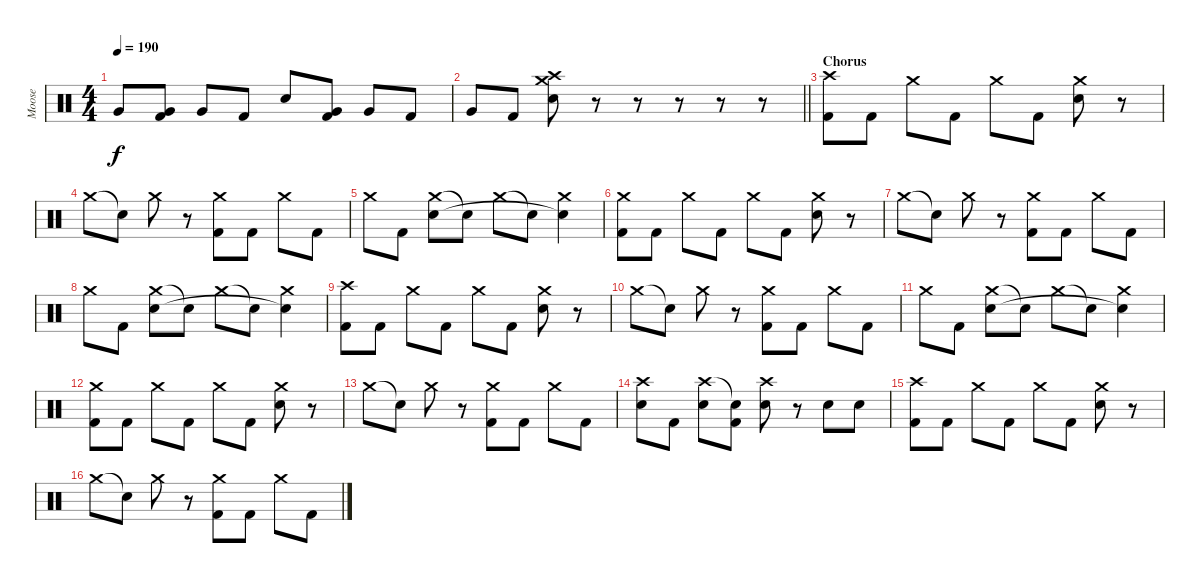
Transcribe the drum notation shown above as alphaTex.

\track ("Moose" "Moose") {instrument percussion}
\staff {score}
\articulation defaults
\ts (4 4)
\tempo 190
\clef neutral
\ks c "Very Low Tom (hit)".8{dy f}
("Very Low Tom (hit)" "Kick (hit) 2").8 "Very Low Tom (hit)".8 "Kick (hit) 2".8 "Snare (hit) 2".8 ("Very Low Tom (hit)" "Kick (hit) 2").8 "Very Low Tom (hit)".8 "Kick (hit) 2".8 |
\barLineRight lightlight "Very Low Tom (hit)".8 "Kick (hit) 2".8
("Crash high (hit)" "Crash medium (hit)" "Snare (hit) 2").8 r.8 r.8 r.8 r.8 r.8 |
\section ("" "Chorus")
("Crash high (hit)" "Kick (hit) 2").8 "Kick (hit) 2".8 "Crash medium (hit)".8 "Kick (hit) 2".8 "Crash medium (hit)".8 "Kick (hit) 2".8 ("Crash medium (hit)" "Snare (hit) 2").8 r.8 |
"Crash medium (hit)".8 "Snare (hit)"{t}.8 "Crash medium (hit)".8 r.8 ("Crash medium (hit)" "Kick (hit) 2").8 "Kick (hit) 2".8 "Crash medium (hit)".8 "Kick (hit) 2".8 |
"Crash medium (hit)".8 "Kick (hit) 2".8 ("Crash medium (hit)" "Snare (hit) 2").8 "Snare (hit)"{t}.8 "Crash medium (hit)".8 "Snare (hit)"{t}.8 ("Crash medium (hit)" "Snare (hit)"{t}).4 |
("Crash medium (hit)" "Kick (hit) 2").8 "Kick (hit) 2".8 "Crash medium (hit)".8 "Kick (hit) 2".8 "Crash medium (hit)".8 "Kick (hit) 2".8 ("Crash medium (hit)" "Snare (hit) 2").8 r.8 |
"Crash medium (hit)".8 "Snare (hit)"{t}.8 "Crash medium (hit)".8 r.8 ("Crash medium (hit)" "Kick (hit) 2").8 "Kick (hit) 2".8 "Crash medium (hit)".8 "Kick (hit) 2".8 |
"Crash medium (hit)".8 "Kick (hit) 2".8 ("Crash medium (hit)" "Snare (hit) 2").8 "Snare (hit)"{t}.8 "Crash medium (hit)".8 "Snare (hit)"{t}.8 ("Crash medium (hit)" "Snare (hit)"{t}).4 |
("Crash high (hit)" "Kick (hit) 2").8 "Kick (hit) 2".8 "Crash medium (hit)".8 "Kick (hit) 2".8 "Crash medium (hit)".8 "Kick (hit) 2".8 ("Crash medium (hit)" "Snare (hit) 2").8 r.8 |
"Crash medium (hit)".8 "Snare (hit)"{t}.8 "Crash medium (hit)".8 r.8 ("Crash medium (hit)" "Kick (hit) 2").8 "Kick (hit) 2".8 "Crash medium (hit)".8 "Kick (hit) 2".8 |
"Crash medium (hit)".8 "Kick (hit) 2".8 ("Crash medium (hit)" "Snare (hit) 2").8 "Snare (hit)"{t}.8 "Crash medium (hit)".8 "Snare (hit)"{t}.8 ("Crash medium (hit)" "Snare (hit)"{t}).4 |
("Crash medium (hit)" "Kick (hit) 2").8 "Kick (hit) 2".8 "Crash medium (hit)".8 "Kick (hit) 2".8 "Crash medium (hit)".8 "Kick (hit) 2".8 ("Crash medium (hit)" "Snare (hit) 2").8 r.8 |
"Crash medium (hit)".8 "Snare (hit)"{t}.8 "Crash medium (hit)".8 r.8 ("Crash medium (hit)" "Kick (hit) 2").8 "Kick (hit) 2".8 "Crash medium (hit)".8 "Kick (hit) 2".8 |
("Crash high (hit)" "Snare (hit) 2").8 "Kick (hit) 2".8 ("Crash high (hit)" "Snare (hit) 2").8 ("Snare (hit)"{t} "Kick (hit) 2").8 ("Crash high (hit)" "Snare (hit) 2").8 r.8 "Snare (hit) 2".8 "Snare (hit) 2".8 |
("Crash high (hit)" "Kick (hit) 2").8 "Kick (hit) 2".8 "Crash medium (hit)".8 "Kick (hit) 2".8 "Crash medium (hit)".8 "Kick (hit) 2".8 ("Crash medium (hit)" "Snare (hit) 2").8 r.8 |
"Crash medium (hit)".8 "Snare (hit)"{t}.8 "Crash medium (hit)".8 r.8 ("Crash medium (hit)" "Kick (hit) 2").8 "Kick (hit) 2".8 "Crash medium (hit)".8 "Kick (hit) 2".8
